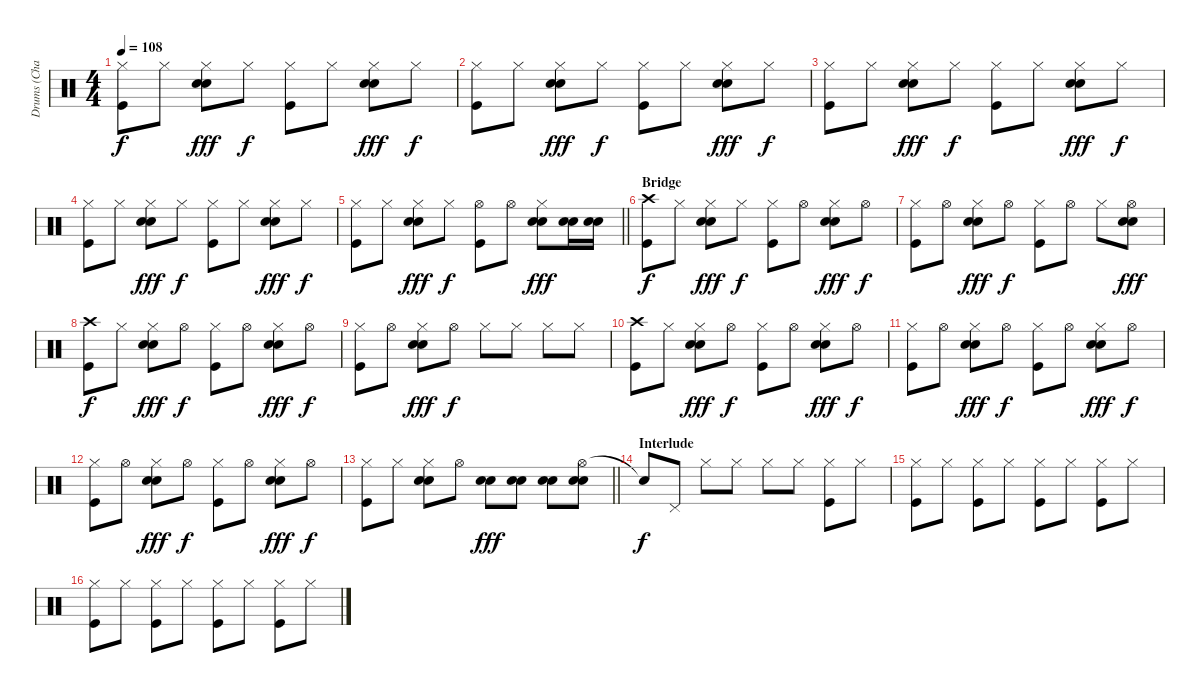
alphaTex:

\track ("Drums (Charlie)" "Drums (Cha") {instrument percussion}
\staff {score}
\articulation defaults
\ts (4 4)
\tempo 108
\clef neutral
\ks c
("Hi-Hat (closed)" "Kick (hit)").8{dy f} "Hi-Hat (closed)".8 ("Hi-Hat (closed)" "Snare (hit) 2" "Electric Snare (hit)").8{dy fff} "Hi-Hat (closed)".8{dy f} ("Hi-Hat (closed)" "Kick (hit)").8 "Hi-Hat (closed)".8 ("Hi-Hat (closed)" "Snare (hit) 2" "Electric Snare (hit)").8{dy fff} "Hi-Hat (closed)".8{dy f} |
("Hi-Hat (closed)" "Kick (hit)").8 "Hi-Hat (closed)".8 ("Hi-Hat (closed)" "Snare (hit) 2" "Electric Snare (hit)").8{dy fff} "Hi-Hat (closed)".8{dy f} ("Hi-Hat (closed)" "Kick (hit)").8 "Hi-Hat (closed)".8 ("Hi-Hat (closed)" "Snare (hit) 2" "Electric Snare (hit)").8{dy fff} "Hi-Hat (closed)".8{dy f} |
("Hi-Hat (closed)" "Kick (hit)").8 "Hi-Hat (closed)".8 ("Hi-Hat (closed)" "Snare (hit) 2" "Electric Snare (hit)").8{dy fff} "Hi-Hat (closed)".8{dy f} ("Hi-Hat (closed)" "Kick (hit)").8 "Hi-Hat (closed)".8 ("Hi-Hat (closed)" "Snare (hit) 2" "Electric Snare (hit)").8{dy fff} "Hi-Hat (closed)".8{dy f} |
("Hi-Hat (closed)" "Kick (hit)").8 "Hi-Hat (closed)".8 ("Hi-Hat (closed)" "Snare (hit) 2" "Electric Snare (hit)").8{dy fff} "Hi-Hat (closed)".8{dy f} ("Hi-Hat (closed)" "Kick (hit)").8 "Hi-Hat (closed)".8 ("Hi-Hat (closed)" "Snare (hit) 2" "Electric Snare (hit)").8{dy fff} "Hi-Hat (closed)".8{dy f} |
\barLineRight lightlight
("Hi-Hat (closed)" "Kick (hit)").8 "Hi-Hat (closed)".8 ("Hi-Hat (closed)" "Snare (hit) 2" "Electric Snare (hit)").8{dy fff} "Hi-Hat (closed)".8{dy f} ("Hi-Hat (open)" "Kick (hit)").8 "Hi-Hat (open)".8 ("Hi-Hat (closed)" "Snare (hit) 2" "Electric Snare (hit)").8{dy fff} ("Snare (hit) 2" "Electric Snare (hit)").16 ("Snare (hit) 2" "Electric Snare (hit)").16 |
\section ("" "Bridge")
("Crash high (hit)" "Kick (hit)").8{dy f} "Hi-Hat (closed)".8 ("Hi-Hat (closed)" "Snare (hit) 2" "Electric Snare (hit)").8{dy fff} "Hi-Hat (closed)".8{dy f} ("Hi-Hat (closed)" "Kick (hit)").8 "Hi-Hat (open)".8 ("Hi-Hat (closed)" "Snare (hit) 2" "Electric Snare (hit)").8{dy fff} "Hi-Hat (open)".8{dy f} |
("Hi-Hat (closed)" "Kick (hit)").8 "Hi-Hat (open)".8 ("Hi-Hat (closed)" "Snare (hit) 2" "Electric Snare (hit)").8{dy fff} "Hi-Hat (open)".8{dy f} ("Hi-Hat (closed)" "Kick (hit)").8 "Hi-Hat (open)".8 "Hi-Hat (closed)".8 ("Hi-Hat (open)" "Snare (hit) 2" "Electric Snare (hit)").8{dy fff} |
("Crash high (hit)" "Kick (hit)").8{dy f} "Hi-Hat (closed)".8 ("Hi-Hat (closed)" "Snare (hit) 2" "Electric Snare (hit)").8{dy fff} "Hi-Hat (open)".8{dy f} ("Hi-Hat (closed)" "Kick (hit)").8 "Hi-Hat (open)".8 ("Hi-Hat (closed)" "Snare (hit) 2" "Electric Snare (hit)").8{dy fff} "Hi-Hat (open)".8{dy f} |
("Hi-Hat (closed)" "Kick (hit)").8 "Hi-Hat (open)".8 ("Hi-Hat (closed)" "Snare (hit) 2" "Electric Snare (hit)").8{dy fff} "Hi-Hat (open)".8{dy f} "Hi-Hat (closed)".8 "Hi-Hat (closed)".8 "Hi-Hat (closed)".8 "Hi-Hat (closed)".8 |
("Crash high (hit)" "Kick (hit)").8 "Hi-Hat (closed)".8 ("Hi-Hat (closed)" "Snare (hit) 2" "Electric Snare (hit)").8{dy fff} "Hi-Hat (open)".8{dy f} ("Hi-Hat (closed)" "Kick (hit)").8 "Hi-Hat (open)".8 ("Hi-Hat (closed)" "Snare (hit) 2" "Electric Snare (hit)").8{dy fff} "Hi-Hat (open)".8{dy f} |
("Hi-Hat (closed)" "Kick (hit)").8 "Hi-Hat (open)".8 ("Hi-Hat (closed)" "Snare (hit) 2" "Electric Snare (hit)").8{dy fff} "Hi-Hat (open)".8{dy f} ("Hi-Hat (closed)" "Kick (hit)").8 "Hi-Hat (open)".8 ("Hi-Hat (closed)" "Snare (hit) 2" "Electric Snare (hit)").8{dy fff} "Hi-Hat (open)".8{dy f} |
("Hi-Hat (closed)" "Kick (hit)").8 "Hi-Hat (open)".8 ("Hi-Hat (closed)" "Snare (hit) 2" "Electric Snare (hit)").8{dy fff} "Hi-Hat (open)".8{dy f} ("Hi-Hat (closed)" "Kick (hit)").8 "Hi-Hat (open)".8 ("Hi-Hat (closed)" "Snare (hit) 2" "Electric Snare (hit)").8{dy fff} "Hi-Hat (open)".8{dy f} |
\barLineRight lightlight
("Hi-Hat (closed)" "Kick (hit)").8 "Hi-Hat (closed)".8 ("Hi-Hat (closed)" "Snare (hit) 2" "Electric Snare (hit)").8 "Hi-Hat (open)".8 ("Snare (hit) 2" "Electric Snare (hit)").8{dy fff} ("Snare (hit) 2" "Electric Snare (hit)").8 ("Snare (hit) 2" "Electric Snare (hit)").8 ("Hi-Hat (open)" "Snare (hit) 2" "Electric Snare (hit)").8 |
\section ("" "Interlude")
"Snare (hit)"{t}.8{dy f} "Pedal Hi-Hat (hit)".8 "Hi-Hat (closed)".8 "Hi-Hat (closed)".8 "Hi-Hat (closed)".8 "Hi-Hat (closed)".8 ("Hi-Hat (closed)" "Kick (hit)").8 "Hi-Hat (closed)".8 |
("Hi-Hat (closed)" "Kick (hit)").8 "Hi-Hat (closed)".8 ("Hi-Hat (closed)" "Kick (hit)").8 "Hi-Hat (closed)".8 ("Hi-Hat (closed)" "Kick (hit)").8 "Hi-Hat (closed)".8 ("Hi-Hat (closed)" "Kick (hit)").8 "Hi-Hat (closed)".8 |
("Hi-Hat (closed)" "Kick (hit)").8 "Hi-Hat (closed)".8 ("Hi-Hat (closed)" "Kick (hit)").8 "Hi-Hat (closed)".8 ("Hi-Hat (closed)" "Kick (hit)").8 "Hi-Hat (closed)".8 ("Hi-Hat (closed)" "Kick (hit)").8 "Hi-Hat (closed)".8
